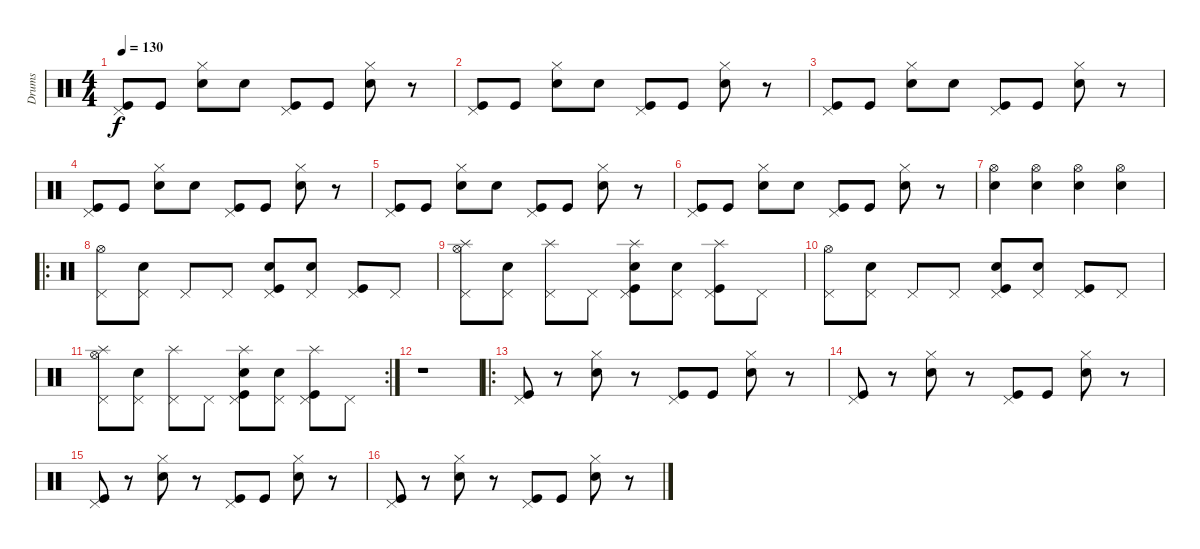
\track ("Drums" "Drums") {instrument percussion}
\staff {score}
\articulation defaults
\ts (4 4)
\tempo 130
\clef neutral
\ks c
("Pedal Hi-Hat (hit)" "Kick (hit)").8{dy f} "Kick (hit)".8 ("Hi-Hat (closed)" "Snare (hit) 2").8 "Snare (hit) 2".8 ("Pedal Hi-Hat (hit)" "Kick (hit)").8 "Kick (hit)".8 ("Hi-Hat (closed)" "Snare (hit) 2").8 r.8 |
("Pedal Hi-Hat (hit)" "Kick (hit)").8 "Kick (hit)".8 ("Hi-Hat (closed)" "Snare (hit) 2").8 "Snare (hit) 2".8 ("Pedal Hi-Hat (hit)" "Kick (hit)").8 "Kick (hit)".8 ("Hi-Hat (closed)" "Snare (hit) 2").8 r.8 |
("Pedal Hi-Hat (hit)" "Kick (hit)").8 "Kick (hit)".8 ("Hi-Hat (closed)" "Snare (hit) 2").8 "Snare (hit) 2".8 ("Pedal Hi-Hat (hit)" "Kick (hit)").8 "Kick (hit)".8 ("Hi-Hat (closed)" "Snare (hit) 2").8 r.8 |
("Pedal Hi-Hat (hit)" "Kick (hit)").8 "Kick (hit)".8 ("Hi-Hat (closed)" "Snare (hit) 2").8 "Snare (hit) 2".8 ("Pedal Hi-Hat (hit)" "Kick (hit)").8 "Kick (hit)".8 ("Hi-Hat (closed)" "Snare (hit) 2").8 r.8 |
("Pedal Hi-Hat (hit)" "Kick (hit)").8 "Kick (hit)".8 ("Hi-Hat (closed)" "Snare (hit) 2").8 "Snare (hit) 2".8 ("Pedal Hi-Hat (hit)" "Kick (hit)").8 "Kick (hit)".8 ("Hi-Hat (closed)" "Snare (hit) 2").8 r.8 |
("Pedal Hi-Hat (hit)" "Kick (hit)").8 "Kick (hit)".8 ("Hi-Hat (closed)" "Snare (hit) 2").8 "Snare (hit) 2".8 ("Pedal Hi-Hat (hit)" "Kick (hit)").8 "Kick (hit)".8 ("Hi-Hat (closed)" "Snare (hit) 2").8 r.8 |
("Hi-Hat (open)" "Snare (hit) 2").4 ("Hi-Hat (open)" "Snare (hit) 2").4 ("Hi-Hat (open)" "Snare (hit) 2").4 ("Hi-Hat (open)" "Snare (hit) 2").4 |
\ro
("Pedal Hi-Hat (hit)" "Hi-Hat (open)").8 ("Pedal Hi-Hat (hit)" "Snare (hit) 2").8 "Pedal Hi-Hat (hit)".8 "Pedal Hi-Hat (hit)".8 ("Pedal Hi-Hat (hit)" "Snare (hit) 2" "Kick (hit)").8 ("Pedal Hi-Hat (hit)" "Snare (hit) 2").8 ("Pedal Hi-Hat (hit)" "Kick (hit)").8 "Pedal Hi-Hat (hit)".8 |
("Splash (hit)" "Pedal Hi-Hat (hit)" "Hi-Hat (open)").8 ("Pedal Hi-Hat (hit)" "Snare (hit) 2").8 ("Splash (hit)" "Pedal Hi-Hat (hit)").8 "Pedal Hi-Hat (hit)".8 ("Splash (hit)" "Pedal Hi-Hat (hit)" "Snare (hit) 2" "Kick (hit)").8 ("Pedal Hi-Hat (hit)" "Snare (hit) 2").8 ("Splash (hit)" "Pedal Hi-Hat (hit)" "Kick (hit)").8 "Pedal Hi-Hat (hit)".8 |
("Pedal Hi-Hat (hit)" "Hi-Hat (open)").8 ("Pedal Hi-Hat (hit)" "Snare (hit) 2").8 "Pedal Hi-Hat (hit)".8 "Pedal Hi-Hat (hit)".8 ("Pedal Hi-Hat (hit)" "Snare (hit) 2" "Kick (hit)").8 ("Pedal Hi-Hat (hit)" "Snare (hit) 2").8 ("Pedal Hi-Hat (hit)" "Kick (hit)").8 "Pedal Hi-Hat (hit)".8 |
\rc 2
("Splash (hit)" "Pedal Hi-Hat (hit)" "Hi-Hat (open)").8 ("Pedal Hi-Hat (hit)" "Snare (hit) 2").8 ("Splash (hit)" "Pedal Hi-Hat (hit)").8 "Pedal Hi-Hat (hit)".8 ("Splash (hit)" "Pedal Hi-Hat (hit)" "Snare (hit) 2" "Kick (hit)").8 ("Pedal Hi-Hat (hit)" "Snare (hit) 2").8 ("Splash (hit)" "Pedal Hi-Hat (hit)" "Kick (hit)").8 "Pedal Hi-Hat (hit)".8 |
r.1 |
\ro
("Pedal Hi-Hat (hit)" "Kick (hit)").8 r.8 ("Hi-Hat (closed)" "Snare (hit) 2").8 r.8 ("Pedal Hi-Hat (hit)" "Kick (hit)").8 "Kick (hit)".8 ("Hi-Hat (closed)" "Snare (hit) 2").8 r.8 |
("Pedal Hi-Hat (hit)" "Kick (hit)").8 r.8 ("Hi-Hat (closed)" "Snare (hit) 2").8 r.8 ("Pedal Hi-Hat (hit)" "Kick (hit)").8 "Kick (hit)".8 ("Hi-Hat (closed)" "Snare (hit) 2").8 r.8 |
("Pedal Hi-Hat (hit)" "Kick (hit)").8 r.8 ("Hi-Hat (closed)" "Snare (hit) 2").8 r.8 ("Pedal Hi-Hat (hit)" "Kick (hit)").8 "Kick (hit)".8 ("Hi-Hat (closed)" "Snare (hit) 2").8 r.8 |
("Pedal Hi-Hat (hit)" "Kick (hit)").8 r.8 ("Hi-Hat (closed)" "Snare (hit) 2").8 r.8 ("Pedal Hi-Hat (hit)" "Kick (hit)").8 "Kick (hit)".8 ("Hi-Hat (closed)" "Snare (hit) 2").8 r.8
